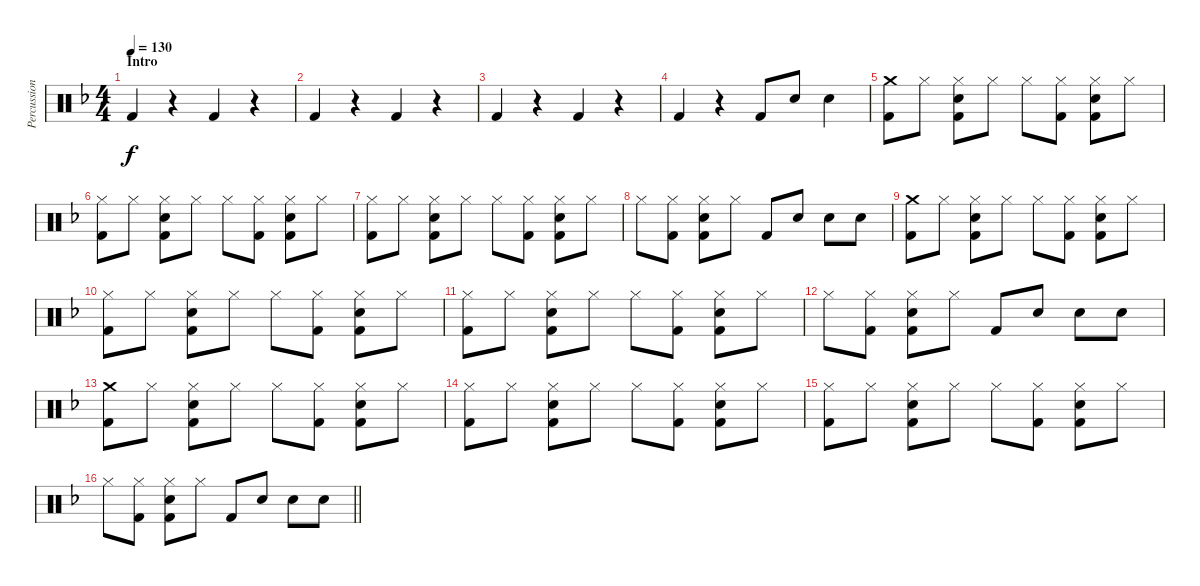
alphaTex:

\track ("Percussion" "Percussion") {instrument percussion}
\staff {score}
\articulation defaults
\ts (4 4)
\section ("" "Intro")
\tempo 130
\clef neutral
\ks f "Kick (hit) 2".4{dy f}
r.4 "Kick (hit) 2".4 r.4 |
"Kick (hit) 2".4 r.4 "Kick (hit) 2".4 r.4 |
"Kick (hit) 2".4 r.4 "Kick (hit) 2".4 r.4 |
"Kick (hit) 2".4 r.4 "Kick (hit) 2".8 "Snare (hit) 2".8 "Snare (hit) 2".4 |
("Crash medium (hit)" "Kick (hit) 2").8 "Hi-Hat (closed)".8 ("Hi-Hat (closed)" "Snare (hit) 2" "Kick (hit) 2").8 "Hi-Hat (closed)".8 "Hi-Hat (closed)".8 ("Hi-Hat (closed)" "Kick (hit) 2").8 ("Hi-Hat (closed)" "Snare (hit) 2" "Kick (hit) 2").8 "Hi-Hat (closed)".8 |
("Hi-Hat (closed)" "Kick (hit) 2").8 "Hi-Hat (closed)".8 ("Hi-Hat (closed)" "Snare (hit) 2" "Kick (hit) 2").8 "Hi-Hat (closed)".8 "Hi-Hat (closed)".8 ("Hi-Hat (closed)" "Kick (hit) 2").8 ("Hi-Hat (closed)" "Snare (hit) 2" "Kick (hit) 2").8 "Hi-Hat (closed)".8 |
("Hi-Hat (closed)" "Kick (hit) 2").8 "Hi-Hat (closed)".8 ("Hi-Hat (closed)" "Snare (hit) 2" "Kick (hit) 2").8 "Hi-Hat (closed)".8 "Hi-Hat (closed)".8 ("Hi-Hat (closed)" "Kick (hit) 2").8 ("Hi-Hat (closed)" "Snare (hit) 2" "Kick (hit) 2").8 "Hi-Hat (closed)".8 |
"Hi-Hat (closed)".8 ("Hi-Hat (closed)" "Kick (hit) 2").8 ("Hi-Hat (closed)" "Snare (hit) 2" "Kick (hit) 2").8 "Hi-Hat (closed)".8 "Kick (hit) 2".8 "Snare (hit) 2".8 "Snare (hit) 2".8 "Snare (hit) 2".8 |
("Crash medium (hit)" "Kick (hit) 2").8 "Hi-Hat (closed)".8 ("Hi-Hat (closed)" "Snare (hit) 2" "Kick (hit) 2").8 "Hi-Hat (closed)".8 "Hi-Hat (closed)".8 ("Hi-Hat (closed)" "Kick (hit) 2").8 ("Hi-Hat (closed)" "Snare (hit) 2" "Kick (hit) 2").8 "Hi-Hat (closed)".8 |
("Hi-Hat (closed)" "Kick (hit) 2").8 "Hi-Hat (closed)".8 ("Hi-Hat (closed)" "Snare (hit) 2" "Kick (hit) 2").8 "Hi-Hat (closed)".8 "Hi-Hat (closed)".8 ("Hi-Hat (closed)" "Kick (hit) 2").8 ("Hi-Hat (closed)" "Snare (hit) 2" "Kick (hit) 2").8 "Hi-Hat (closed)".8 |
("Hi-Hat (closed)" "Kick (hit) 2").8 "Hi-Hat (closed)".8 ("Hi-Hat (closed)" "Snare (hit) 2" "Kick (hit) 2").8 "Hi-Hat (closed)".8 "Hi-Hat (closed)".8 ("Hi-Hat (closed)" "Kick (hit) 2").8 ("Hi-Hat (closed)" "Snare (hit) 2" "Kick (hit) 2").8 "Hi-Hat (closed)".8 |
"Hi-Hat (closed)".8 ("Hi-Hat (closed)" "Kick (hit) 2").8 ("Hi-Hat (closed)" "Snare (hit) 2" "Kick (hit) 2").8 "Hi-Hat (closed)".8 "Kick (hit) 2".8 "Snare (hit) 2".8 "Snare (hit) 2".8 "Snare (hit) 2".8 |
("Crash medium (hit)" "Kick (hit) 2").8 "Hi-Hat (closed)".8 ("Hi-Hat (closed)" "Snare (hit) 2" "Kick (hit) 2").8 "Hi-Hat (closed)".8 "Hi-Hat (closed)".8 ("Hi-Hat (closed)" "Kick (hit) 2").8 ("Hi-Hat (closed)" "Snare (hit) 2" "Kick (hit) 2").8 "Hi-Hat (closed)".8 |
("Hi-Hat (closed)" "Kick (hit) 2").8 "Hi-Hat (closed)".8 ("Hi-Hat (closed)" "Snare (hit) 2" "Kick (hit) 2").8 "Hi-Hat (closed)".8 "Hi-Hat (closed)".8 ("Hi-Hat (closed)" "Kick (hit) 2").8 ("Hi-Hat (closed)" "Snare (hit) 2" "Kick (hit) 2").8 "Hi-Hat (closed)".8 |
("Hi-Hat (closed)" "Kick (hit) 2").8 "Hi-Hat (closed)".8 ("Hi-Hat (closed)" "Snare (hit) 2" "Kick (hit) 2").8 "Hi-Hat (closed)".8 "Hi-Hat (closed)".8 ("Hi-Hat (closed)" "Kick (hit) 2").8 ("Hi-Hat (closed)" "Snare (hit) 2" "Kick (hit) 2").8 "Hi-Hat (closed)".8 |
\barLineRight lightlight "Hi-Hat (closed)".8
("Hi-Hat (closed)" "Kick (hit) 2").8 ("Hi-Hat (closed)" "Snare (hit) 2" "Kick (hit) 2").8 "Hi-Hat (closed)".8 "Kick (hit) 2".8 "Snare (hit) 2".8 "Snare (hit) 2".8 "Snare (hit) 2".8
